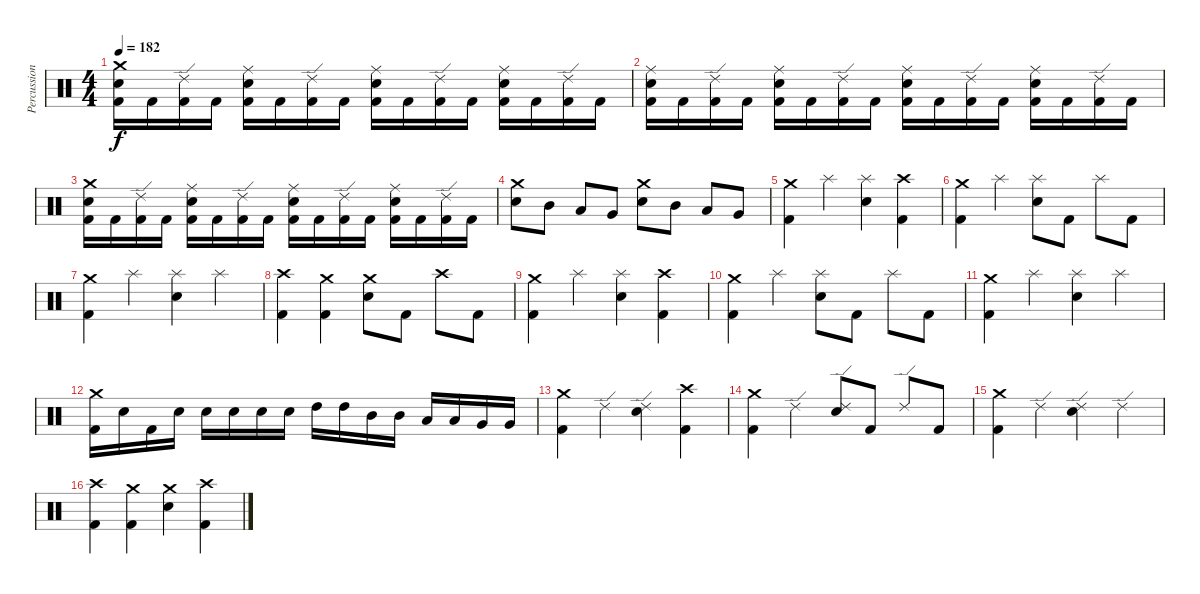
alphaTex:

\track ("Percussion" "Percussion") {instrument percussion}
\staff {score}
\articulation defaults
\ts (4 4)
\tempo 182
\clef neutral
\ks c
("Crash medium (hit)" "Electric Snare (hit)" "Kick (hit) 2").16{dy f} "Kick (hit) 2".16 ("Ride (edge) 2" "Kick (hit) 2").16 "Kick (hit) 2".16 ("Ride (middle)" "Electric Snare (hit)" "Kick (hit) 2").16 "Kick (hit) 2".16 ("Ride (edge) 2" "Kick (hit) 2").16 "Kick (hit) 2".16 ("Ride (middle)" "Electric Snare (hit)" "Kick (hit) 2").16 "Kick (hit) 2".16 ("Ride (edge) 2" "Kick (hit) 2").16 "Kick (hit) 2".16 ("Ride (middle)" "Electric Snare (hit)" "Kick (hit) 2").16 "Kick (hit) 2".16 ("Ride (edge) 2" "Kick (hit) 2").16 "Kick (hit) 2".16 |
("Ride (middle)" "Electric Snare (hit)" "Kick (hit) 2").16 "Kick (hit) 2".16 ("Ride (edge) 2" "Kick (hit) 2").16 "Kick (hit) 2".16 ("Ride (middle)" "Electric Snare (hit)" "Kick (hit) 2").16 "Kick (hit) 2".16 ("Ride (edge) 2" "Kick (hit) 2").16 "Kick (hit) 2".16 ("Ride (middle)" "Electric Snare (hit)" "Kick (hit) 2").16 "Kick (hit) 2".16 ("Ride (edge) 2" "Kick (hit) 2").16 "Kick (hit) 2".16 ("Ride (middle)" "Electric Snare (hit)" "Kick (hit) 2").16 "Kick (hit) 2".16 ("Ride (edge) 2" "Kick (hit) 2").16 "Kick (hit) 2".16 |
("Crash medium (hit)" "Electric Snare (hit)" "Kick (hit) 2").16 "Kick (hit) 2".16 ("Ride (edge) 2" "Kick (hit) 2").16 "Kick (hit) 2".16 ("Ride (middle)" "Electric Snare (hit)" "Kick (hit) 2").16 "Kick (hit) 2".16 ("Ride (edge) 2" "Kick (hit) 2").16 "Kick (hit) 2".16 ("Ride (middle)" "Electric Snare (hit)" "Kick (hit) 2").16 "Kick (hit) 2".16 ("Ride (edge) 2" "Kick (hit) 2").16 "Kick (hit) 2".16 ("Ride (middle)" "Electric Snare (hit)" "Kick (hit) 2").16 "Kick (hit) 2".16 ("Ride (edge) 2" "Kick (hit) 2").16 "Kick (hit) 2".16 |
("Crash medium (hit)" "Electric Snare (hit)").8 "Mid Tom (hit)".8 "Low Tom (hit)".8 "Very Low Tom (hit)".8 ("Crash medium (hit)" "Electric Snare (hit)").8 "Mid Tom (hit)".8 "Low Tom (hit)".8 "Very Low Tom (hit)".8 |
("Crash medium (hit)" "Kick (hit) 2").4 "Splash (hit)".4 ("Splash (hit)" "Electric Snare (hit)").4 ("Crash high (hit)" "Kick (hit) 2").4 |
("Crash medium (hit)" "Kick (hit) 2").4 "Splash (hit)".4 ("Splash (hit)" "Electric Snare (hit)").8 "Kick (hit) 2".8 "Splash (hit)".8 "Kick (hit) 2".8 |
("Crash medium (hit)" "Kick (hit) 2").4 "Splash (hit)".4 ("Splash (hit)" "Electric Snare (hit)").4 "Splash (hit)".4 |
("Crash high (hit)" "Kick (hit) 2").4 ("Crash medium (hit)" "Kick (hit) 2").4 ("Crash medium (hit)" "Electric Snare (hit)").8 "Kick (hit) 2".8 "Crash high (hit)".8 "Kick (hit) 2".8 |
("Crash medium (hit)" "Kick (hit) 2").4 "Splash (hit)".4 ("Splash (hit)" "Electric Snare (hit)").4 ("Crash high (hit)" "Kick (hit) 2").4 |
("Crash medium (hit)" "Kick (hit) 2").4 "Splash (hit)".4 ("Splash (hit)" "Electric Snare (hit)").8 "Kick (hit) 2".8 "Splash (hit)".8 "Kick (hit) 2".8 |
("Crash medium (hit)" "Kick (hit) 2").4 "Splash (hit)".4 ("Splash (hit)" "Electric Snare (hit)").4 "Splash (hit)".4 |
("Crash medium (hit)" "Kick (hit) 2").16 "Electric Snare (hit)".16 "Kick (hit) 2".16 "Electric Snare (hit)".16 "Electric Snare (hit)".16 "Electric Snare (hit)".16 "Electric Snare (hit)".16 "Electric Snare (hit)".16 "High Tom (hit)".16 "High Tom (hit)".16 "Mid Tom (hit)".16 "Mid Tom (hit)".16 "Low Tom (hit)".16 "Low Tom (hit)".16 "Very Low Tom (hit)".16 "Very Low Tom (hit)".16 |
("Crash medium (hit)" "Kick (hit) 2").4 "Ride (edge) 2".4 ("Ride (edge) 2" "Electric Snare (hit)").4 ("Crash high (hit)" "Kick (hit) 2").4 |
("Crash medium (hit)" "Kick (hit) 2").4 "Ride (edge) 2".4 ("Ride (edge) 2" "Electric Snare (hit)").8 "Kick (hit) 2".8 "Ride (edge) 2".8 "Kick (hit) 2".8 |
("Crash medium (hit)" "Kick (hit) 2").4 "Ride (edge) 2".4 ("Ride (edge) 2" "Electric Snare (hit)").4 "Ride (edge) 2".4 |
("Crash high (hit)" "Kick (hit) 2").4 ("Crash medium (hit)" "Kick (hit) 2").4 ("Crash medium (hit)" "Electric Snare (hit)").4 ("Crash high (hit)" "Kick (hit) 2").4
